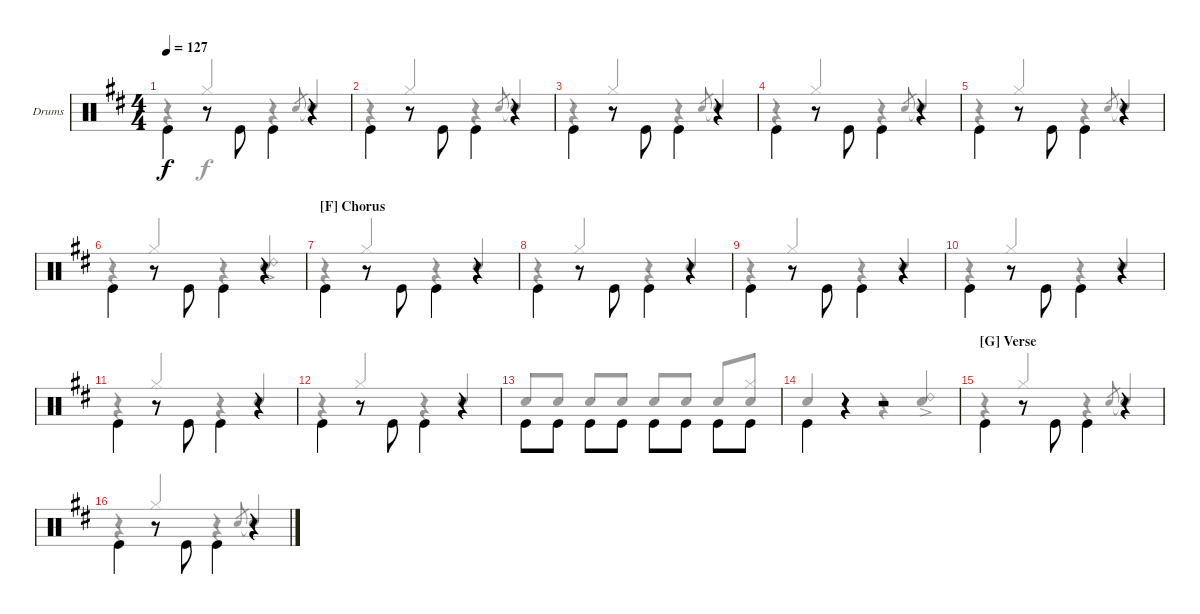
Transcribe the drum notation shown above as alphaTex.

\bracketExtendMode groupsimilarinstruments
\firstSystemTrackNameOrientation horizontal
\otherSystemsTrackNameOrientation horizontal
\track ("Drum" "Drums") {instrument percussion}
\staff {score}
\articulation defaults
\voice
\ts (4 4)
\tempo 127
\clef neutral
\scale
0.5
\ks d "Kick (hit)".4{dy f beam invert}
r.8 "Kick (hit)".8{beam invert} "Kick (hit)".4{beam invert} r.4 |
\scale
0.5 "Kick (hit)".4{beam invert} r.8 "Kick (hit)".8{beam invert} "Kick (hit)".4{beam invert} r.4 |
\scale
0.5 "Kick (hit)".4{beam invert} r.8 "Kick (hit)".8{beam invert} "Kick (hit)".4{beam invert} r.4 |
\scale
0.5 "Kick (hit)".4{beam invert} r.8 "Kick (hit)".8{beam invert} "Kick (hit)".4{beam invert} r.4 |
\scale
0.5 "Kick (hit)".4{beam invert} r.8 "Kick (hit)".8{beam invert} "Kick (hit)".4{beam invert} r.4 |
\scale
0.5 "Kick (hit)".4{beam invert} r.8 "Kick (hit)".8{beam invert} "Kick (hit)".4{beam invert} r.4 |
\section ("F" "Chorus")
\scale
0.5 "Kick (hit)".4{beam invert} r.8 "Kick (hit)".8{beam invert} "Kick (hit)".4{beam invert} r.4 |
\scale
0.5 "Kick (hit)".4{beam invert} r.8 "Kick (hit)".8{beam invert} "Kick (hit)".4{beam invert} r.4 |
\scale
0.5 "Kick (hit)".4{beam invert} r.8 "Kick (hit)".8{beam invert} "Kick (hit)".4{beam invert} r.4 |
\scale
0.5 "Kick (hit)".4{beam invert} r.8 "Kick (hit)".8{beam invert} "Kick (hit)".4{beam invert} r.4 |
\scale
0.5 "Kick (hit)".4{beam invert} r.8 "Kick (hit)".8{beam invert} "Kick (hit)".4{beam invert} r.4 |
\scale
0.5 "Kick (hit)".4{beam invert} r.8 "Kick (hit)".8{beam invert} "Kick (hit)".4{beam invert} r.4 |
\scale
0.5 "Kick (hit)".8{beam invert} "Kick (hit)".8 "Kick (hit)".8{beam invert} "Kick (hit)".8 "Kick (hit)".8{beam invert} "Kick (hit)".8 "Kick (hit)".8{beam invert} "Kick (hit)".8 |
\scale
0.5 "Kick (hit)".4{beam invert} r.4 r.2 |
\section ("G" "Verse")
\scale
0.5 "Kick (hit)".4{beam invert} r.8 "Kick (hit)".8{beam invert} "Kick (hit)".4{beam invert} r.4 |
\scale
0.5 "Kick (hit)".4{beam invert} r.8 "Kick (hit)".8{beam invert} "Kick (hit)".4{beam invert} r.4
\voice
\clef neutral
\ottava regular
\simile none
\scale
0.5
\ks d
r.4{dy f} "Hi-Hat (closed)".4{beam invert} r.4 "Snare (hit) 2".8{gr beam invert} "Snare (hit) 2"{t}.4{beam invert} |
\scale
0.5 r.4 "Hi-Hat (closed)".4{beam invert} r.4 "Snare (hit) 2".8{gr beam invert} "Snare (hit) 2"{t}.4{beam invert} |
\scale
0.5 r.4 "Hi-Hat (closed)".4{beam invert} r.4 "Snare (hit) 2".8{gr beam invert} "Snare (hit) 2"{t}.4{beam invert} |
\scale
0.5 r.4 "Hi-Hat (closed)".4{beam invert} r.4 "Snare (hit) 2".8{gr beam invert} "Snare (hit) 2"{t}.4{beam invert} |
\scale
0.5 r.4 "Hi-Hat (closed)".4{beam invert} r.4 "Snare (hit) 2".8{gr beam invert} "Snare (hit) 2"{t}.4{beam invert} |
\scale
0.5 r.4{beam invert} "Hi-Hat (closed)".4{beam invert} r.4 ("Snare (hit) 2" "Ride (bell) 2"{ac}).4{beam invert} |
\scale
0.5 r.4 "Hi-Hat (closed)".4{beam invert} r.4 "Snare (hit) 2".4{beam invert} |
\scale
0.5 r.4 "Hi-Hat (closed)".4{beam invert} r.4 "Snare (hit) 2".4{beam invert} |
\scale
0.5 r.4 "Hi-Hat (closed)".4{beam invert} r.4 "Snare (hit) 2".4{beam invert} |
\scale
0.5 r.4 "Hi-Hat (closed)".4{beam invert} r.4 "Snare (hit) 2".4{beam invert} |
\scale
0.5 r.4 "Hi-Hat (closed)".4{beam invert} r.4 "Snare (hit) 2".4{beam invert} |
\scale
0.5 r.4 "Hi-Hat (closed)".4{beam invert} r.4 "Snare (hit) 2".4{beam invert} |
\scale
0.5 "Snare (hit) 2".8{beam invert} "Snare (hit) 2".8 "Snare (hit) 2".8{beam invert} "Snare (hit) 2".8 "Snare (hit) 2".8{beam invert} "Snare (hit) 2".8 "Snare (hit) 2".8{beam invert} ("Snare (hit) 2" "Hi-Hat (closed)").8 |
\scale
0.5 "Snare (hit) 2".4{beam invert} r.4 r.4 ("Snare (hit) 2" "Ride (bell) 2"{ac}).4{beam invert} |
\scale
0.5 r.4 "Hi-Hat (closed)".4{beam invert} r.4 "Snare (hit) 2".8{gr beam invert} "Snare (hit) 2"{t}.4{beam invert} |
\scale
0.5 r.4 "Hi-Hat (closed)".4{beam invert} r.4 "Snare (hit) 2".8{gr beam invert} "Snare (hit) 2"{t}.4{beam invert}
